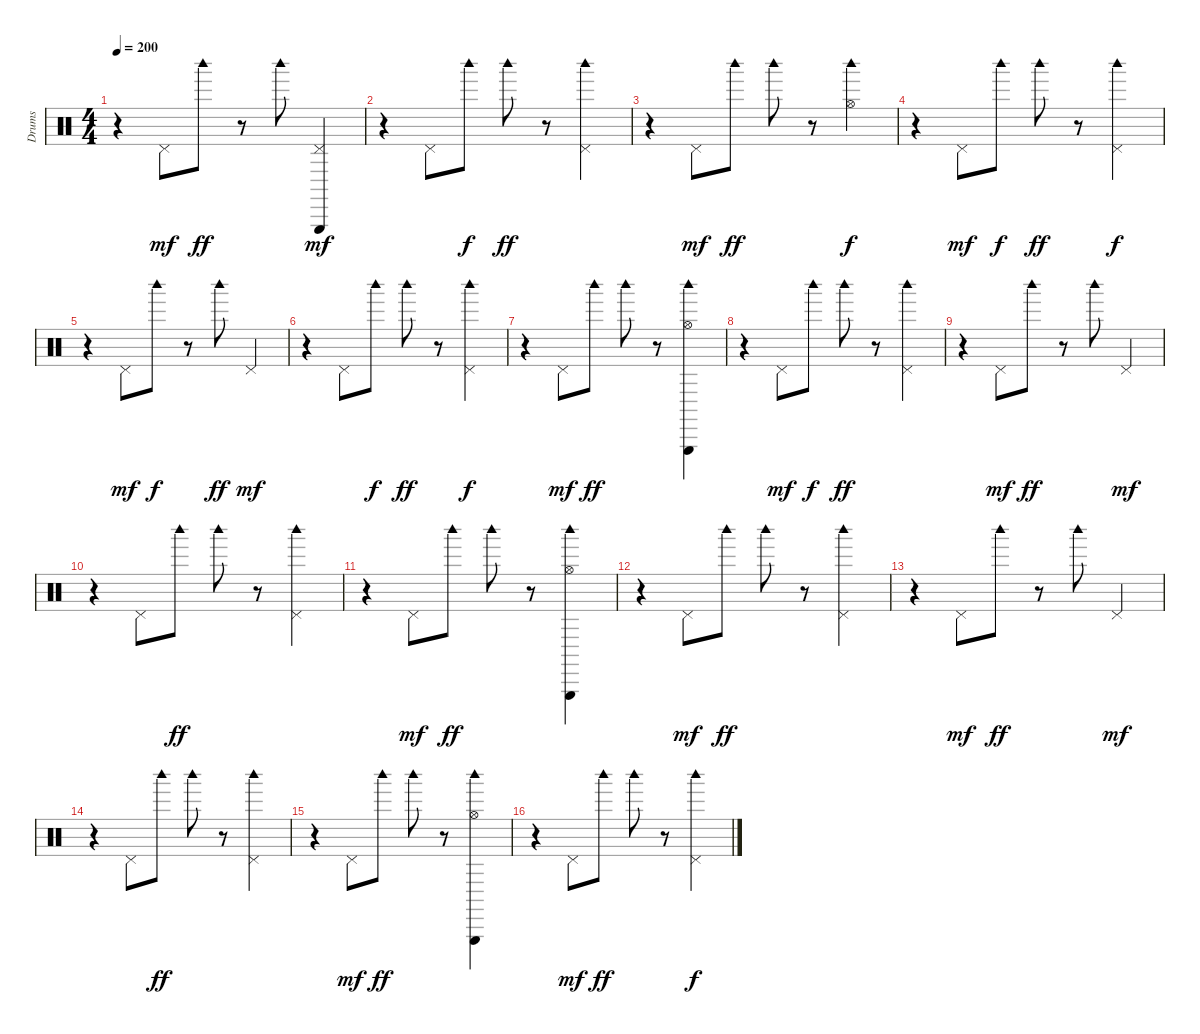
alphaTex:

\track ("Drums" "Drums") {instrument percussion}
\staff {score}
\articulation defaults
\ts (4 4)
\tempo 200
\clef neutral
\ks c
r.4{dy f} "Pedal Hi-Hat (hit)".8{dy mf} "Woodblock high (hit)".8{dy ff} r.8 "Woodblock high (hit)".8 ("Pedal Hi-Hat (hit)" "Triangle (hit)").4{dy mf} |
r.4 "Pedal Hi-Hat (hit)".8 "Woodblock high (hit)".8{dy f} "Woodblock high (hit)".8{dy ff} r.8 ("Pedal Hi-Hat (hit)" "Woodblock high (hit)").4 |
r.4 "Pedal Hi-Hat (hit)".8{dy mf} "Woodblock high (hit)".8{dy ff} "Woodblock high (hit)".8 r.8 ("Woodblock high (hit)" "Hi-Hat (open)").4{dy f} |
r.4 "Pedal Hi-Hat (hit)".8{dy mf} "Woodblock high (hit)".8{dy f} "Woodblock high (hit)".8{dy ff} r.8 ("Pedal Hi-Hat (hit)" "Woodblock high (hit)").4{dy f} |
r.4 "Pedal Hi-Hat (hit)".8{dy mf} "Woodblock high (hit)".8{dy f} r.8 "Woodblock high (hit)".8{dy ff} "Pedal Hi-Hat (hit)".4{dy mf} |
r.4 "Pedal Hi-Hat (hit)".8 "Woodblock high (hit)".8{dy f} "Woodblock high (hit)".8{dy ff} r.8 ("Pedal Hi-Hat (hit)" "Woodblock high (hit)").4{dy f} |
r.4 "Pedal Hi-Hat (hit)".8{dy mf} "Woodblock high (hit)".8{dy ff} "Woodblock high (hit)".8 r.8 ("Woodblock high (hit)" "Hi-Hat (open)" "Triangle (hit)").4 |
r.4 "Pedal Hi-Hat (hit)".8{dy mf} "Woodblock high (hit)".8{dy f} "Woodblock high (hit)".8{dy ff} r.8 ("Pedal Hi-Hat (hit)" "Woodblock high (hit)").4 |
r.4 "Pedal Hi-Hat (hit)".8{dy mf} "Woodblock high (hit)".8{dy ff} r.8 "Woodblock high (hit)".8 "Pedal Hi-Hat (hit)".4{dy mf} |
r.4 "Pedal Hi-Hat (hit)".8 "Woodblock high (hit)".8{dy ff} "Woodblock high (hit)".8 r.8 ("Pedal Hi-Hat (hit)" "Woodblock high (hit)").4 |
r.4 "Pedal Hi-Hat (hit)".8{dy mf} "Woodblock high (hit)".8{dy ff} "Woodblock high (hit)".8 r.8 ("Woodblock high (hit)" "Hi-Hat (open)" "Triangle (hit)").4 |
r.4 "Pedal Hi-Hat (hit)".8{dy mf} "Woodblock high (hit)".8{dy ff} "Woodblock high (hit)".8 r.8 ("Pedal Hi-Hat (hit)" "Woodblock high (hit)").4 |
r.4 "Pedal Hi-Hat (hit)".8{dy mf} "Woodblock high (hit)".8{dy ff} r.8 "Woodblock high (hit)".8 "Pedal Hi-Hat (hit)".4{dy mf} |
r.4 "Pedal Hi-Hat (hit)".8 "Woodblock high (hit)".8{dy ff} "Woodblock high (hit)".8 r.8 ("Pedal Hi-Hat (hit)" "Woodblock high (hit)").4 |
r.4 "Pedal Hi-Hat (hit)".8{dy mf} "Woodblock high (hit)".8{dy ff} "Woodblock high (hit)".8 r.8 ("Woodblock high (hit)" "Hi-Hat (open)" "Triangle (hit)").4 |
r.4 "Pedal Hi-Hat (hit)".8{dy mf} "Woodblock high (hit)".8{dy ff} "Woodblock high (hit)".8 r.8 ("Pedal Hi-Hat (hit)" "Woodblock high (hit)").4{dy f}
